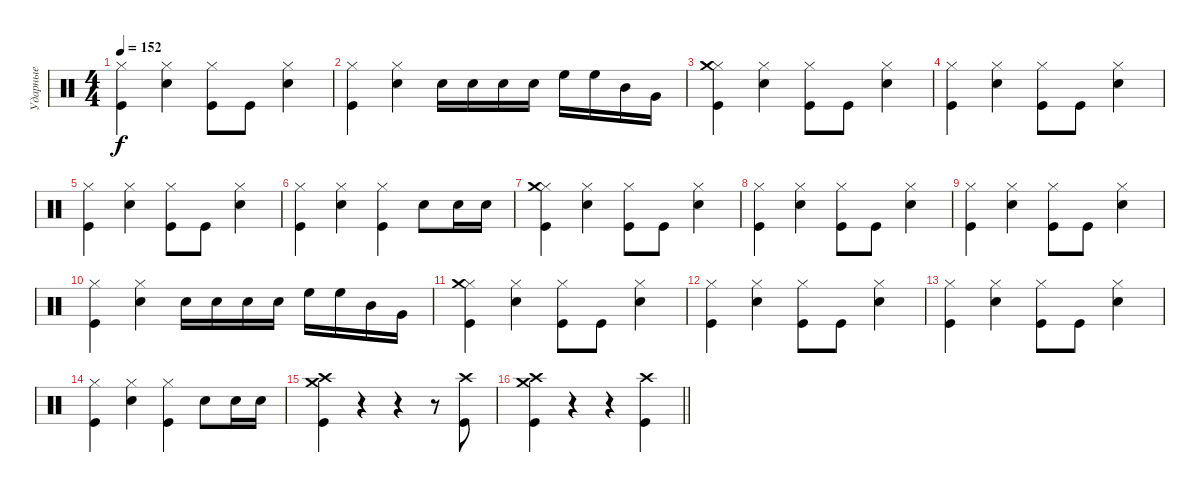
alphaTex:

\track ("Ударные" "Ударные") {instrument percussion}
\staff {score}
\articulation defaults
\ts (4 4)
\tempo 152
\clef neutral
\ks c
("Hi-Hat (closed)" "Kick (hit)").4{dy f} ("Hi-Hat (closed)" "Snare (hit) 2").4 ("Kick (hit)" "Hi-Hat (closed)").8 "Kick (hit)".8 ("Snare (hit) 2" "Hi-Hat (closed)").4 |
("Hi-Hat (closed)" "Kick (hit)").4 ("Hi-Hat (closed)" "Snare (hit) 2").4 "Snare (hit) 2".16 "Snare (hit) 2".16 "Snare (hit) 2".16 "Snare (hit) 2".16 "High Floor Tom (hit)".16 "High Floor Tom (hit)".16 "Mid Tom (hit)".16 "Very Low Tom (hit)".16 |
("Hi-Hat (closed)" "Crash medium (hit)" "Kick (hit)").4 ("Hi-Hat (closed)" "Snare (hit) 2").4 ("Kick (hit)" "Hi-Hat (closed)").8 "Kick (hit)".8 ("Snare (hit) 2" "Hi-Hat (closed)").4 |
("Hi-Hat (closed)" "Kick (hit)").4 ("Hi-Hat (closed)" "Snare (hit) 2").4 ("Kick (hit)" "Hi-Hat (closed)").8 "Kick (hit)".8 ("Snare (hit) 2" "Hi-Hat (closed)").4 |
("Hi-Hat (closed)" "Kick (hit)").4 ("Hi-Hat (closed)" "Snare (hit) 2").4 ("Kick (hit)" "Hi-Hat (closed)").8 "Kick (hit)".8 ("Snare (hit) 2" "Hi-Hat (closed)").4 |
("Hi-Hat (closed)" "Kick (hit)").4 ("Hi-Hat (closed)" "Snare (hit) 2").4 ("Kick (hit)" "Hi-Hat (closed)").4 "Snare (hit) 2".8 "Snare (hit) 2".16 "Snare (hit) 2".16 |
("Hi-Hat (closed)" "Crash medium (hit)" "Kick (hit)").4 ("Hi-Hat (closed)" "Snare (hit) 2").4 ("Kick (hit)" "Hi-Hat (closed)").8 "Kick (hit)".8 ("Snare (hit) 2" "Hi-Hat (closed)").4 |
("Hi-Hat (closed)" "Kick (hit)").4 ("Hi-Hat (closed)" "Snare (hit) 2").4 ("Kick (hit)" "Hi-Hat (closed)").8 "Kick (hit)".8 ("Snare (hit) 2" "Hi-Hat (closed)").4 |
("Hi-Hat (closed)" "Kick (hit)").4 ("Hi-Hat (closed)" "Snare (hit) 2").4 ("Kick (hit)" "Hi-Hat (closed)").8 "Kick (hit)".8 ("Snare (hit) 2" "Hi-Hat (closed)").4 |
("Hi-Hat (closed)" "Kick (hit)").4 ("Hi-Hat (closed)" "Snare (hit) 2").4 "Snare (hit) 2".16 "Snare (hit) 2".16 "Snare (hit) 2".16 "Snare (hit) 2".16 "High Floor Tom (hit)".16 "High Floor Tom (hit)".16 "Mid Tom (hit)".16 "Very Low Tom (hit)".16 |
("Hi-Hat (closed)" "Crash medium (hit)" "Kick (hit)").4 ("Hi-Hat (closed)" "Snare (hit) 2").4 ("Kick (hit)" "Hi-Hat (closed)").8 "Kick (hit)".8 ("Snare (hit) 2" "Hi-Hat (closed)").4 |
("Hi-Hat (closed)" "Kick (hit)").4 ("Hi-Hat (closed)" "Snare (hit) 2").4 ("Kick (hit)" "Hi-Hat (closed)").8 "Kick (hit)".8 ("Snare (hit) 2" "Hi-Hat (closed)").4 |
("Hi-Hat (closed)" "Kick (hit)").4 ("Hi-Hat (closed)" "Snare (hit) 2").4 ("Kick (hit)" "Hi-Hat (closed)").8 "Kick (hit)".8 ("Snare (hit) 2" "Hi-Hat (closed)").4 |
("Hi-Hat (closed)" "Kick (hit)").4 ("Hi-Hat (closed)" "Snare (hit) 2").4 ("Kick (hit)" "Hi-Hat (closed)").4 "Snare (hit) 2".8 "Snare (hit) 2".16 "Snare (hit) 2".16 |
("Crash high (hit)" "Kick (hit)" "Crash medium (hit)").4 r.4 r.4 r.8 ("Kick (hit)" "Crash high (hit)").8 |
\barLineRight lightlight
("Kick (hit)" "Crash high (hit)" "Crash medium (hit)").4 r.4 r.4 ("Kick (hit)" "Crash high (hit)").4
